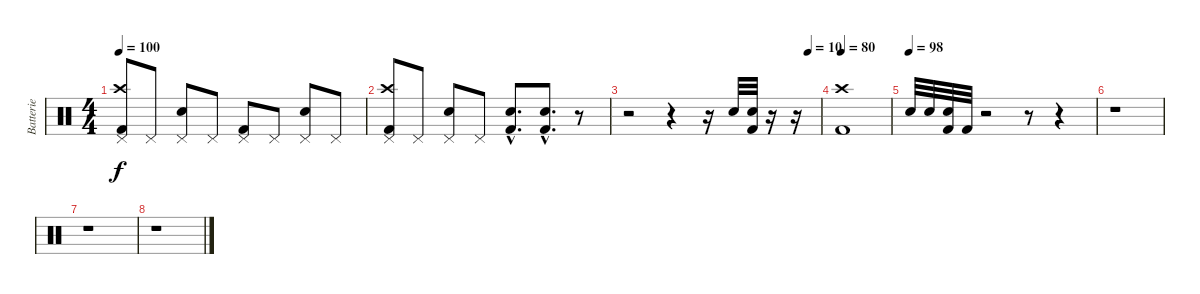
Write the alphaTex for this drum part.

\track ("Batterie" "Batterie") {instrument percussion}
\staff {score}
\articulation defaults
\ts (4 4)
\tempo 100
\clef neutral
\ks c
("Pedal Hi-Hat (hit)" "Crash high (hit)" "Kick (hit) 2").8{dy f} "Pedal Hi-Hat (hit)".8 ("Pedal Hi-Hat (hit)" "Snare (hit) 2").8 "Pedal Hi-Hat (hit)".8 ("Pedal Hi-Hat (hit)" "Kick (hit) 2").8 "Pedal Hi-Hat (hit)".8 ("Pedal Hi-Hat (hit)" "Snare (hit) 2").8 "Pedal Hi-Hat (hit)".8 |
("Pedal Hi-Hat (hit)" "Crash high (hit)" "Kick (hit) 2").8 "Pedal Hi-Hat (hit)".8 ("Pedal Hi-Hat (hit)" "Snare (hit) 2").8 "Pedal Hi-Hat (hit)".8 ("Snare (hit) 2"{hac} "Kick (hit) 2"{hac}).8{d} ("Snare (hit) 2"{hac} "Kick (hit) 2"{hac}).8{d} r.8 |
\tempo (10 0.9375)
r.2 r.4 r.16 "Snare (hit) 2".32 ("Snare (hit) 2" "Kick (hit) 2").32 r.16 r.16 |
\tempo 70
\tempo 80
("Crash high (hit)" "Kick (hit) 2").1 |
\tempo (98)
"Snare (hit) 2".32 "Snare (hit) 2".32 ("Snare (hit) 2" "Kick (hit) 2").32 "Kick (hit) 2".32 r.2 r.8 r.4 |
r.1 |
r.1 |
r.1
